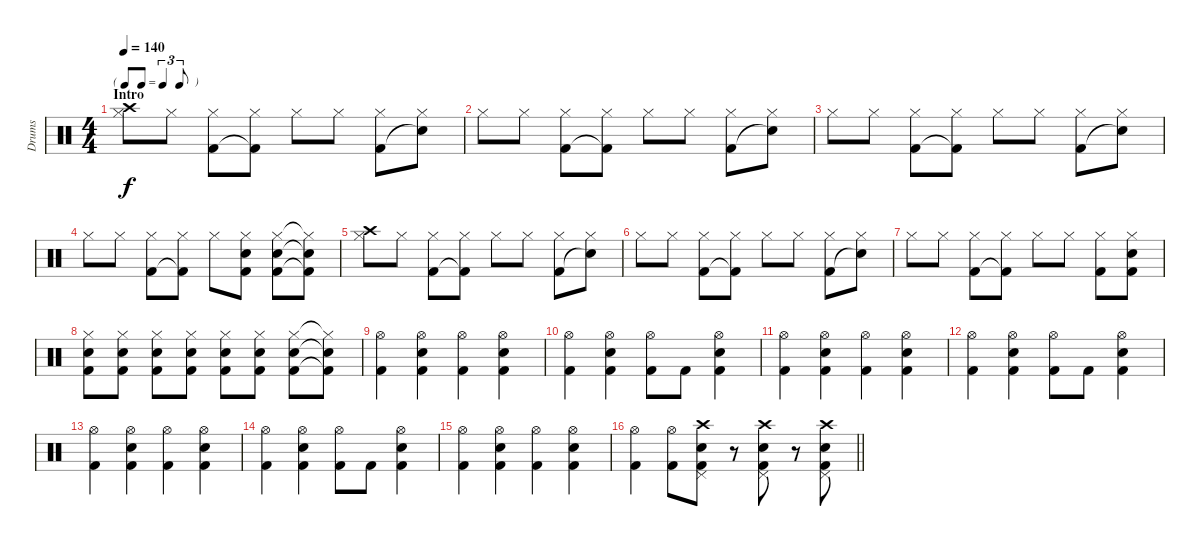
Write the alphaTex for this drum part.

\track ("Drums" "Drums") {instrument percussion}
\staff {score}
\articulation defaults
\ts (4 4)
\tf triplet8th
\section ("" "Intro")
\tempo 140
\clef neutral
\ks c
("Hi-Hat (closed)" "Crash high (hit)").8{dy f} "Hi-Hat (closed)".8 ("Hi-Hat (closed)" "Kick (hit) 2").8 ("Hi-Hat (closed)" "Kick (hit) 2"{t}).8 "Hi-Hat (closed)".8 "Hi-Hat (closed)".8 ("Hi-Hat (closed)" "Kick (hit) 2").8 ("Hi-Hat (closed)" "Snare (hit)"{t}).8 |
"Hi-Hat (closed)".8 "Hi-Hat (closed)".8 ("Hi-Hat (closed)" "Kick (hit) 2").8 ("Hi-Hat (closed)" "Kick (hit) 2"{t}).8 "Hi-Hat (closed)".8 "Hi-Hat (closed)".8 ("Hi-Hat (closed)" "Kick (hit) 2").8 ("Hi-Hat (closed)" "Snare (hit)"{t}).8 |
"Hi-Hat (closed)".8 "Hi-Hat (closed)".8 ("Hi-Hat (closed)" "Kick (hit) 2").8 ("Hi-Hat (closed)" "Kick (hit) 2"{t}).8 "Hi-Hat (closed)".8 "Hi-Hat (closed)".8 ("Hi-Hat (closed)" "Kick (hit) 2").8 ("Hi-Hat (closed)" "Snare (hit)"{t}).8 |
"Hi-Hat (closed)".8 "Hi-Hat (closed)".8 ("Hi-Hat (closed)" "Kick (hit) 2").8 ("Hi-Hat (closed)" "Kick (hit) 2"{t}).8 "Hi-Hat (closed)".8 ("Hi-Hat (closed)" "Snare (hit) 2" "Kick (hit) 2").8 ("Hi-Hat (closed)" "Snare (hit) 2" "Kick (hit) 2").8 ("Hi-Hat (closed)"{t} "Snare (hit) 2"{t} "Kick (hit) 2"{t}).8 |
("Hi-Hat (closed)" "Crash high (hit)").8 "Hi-Hat (closed)".8 ("Hi-Hat (closed)" "Kick (hit) 2").8 ("Hi-Hat (closed)" "Kick (hit) 2"{t}).8 "Hi-Hat (closed)".8 "Hi-Hat (closed)".8 ("Hi-Hat (closed)" "Kick (hit) 2").8 ("Hi-Hat (closed)" "Snare (hit)"{t}).8 |
"Hi-Hat (closed)".8 "Hi-Hat (closed)".8 ("Hi-Hat (closed)" "Kick (hit) 2").8 ("Hi-Hat (closed)" "Kick (hit) 2"{t}).8 "Hi-Hat (closed)".8 "Hi-Hat (closed)".8 ("Hi-Hat (closed)" "Kick (hit) 2").8 ("Hi-Hat (closed)" "Snare (hit)"{t}).8 |
"Hi-Hat (closed)".8 "Hi-Hat (closed)".8 ("Hi-Hat (closed)" "Kick (hit) 2").8 ("Hi-Hat (closed)" "Kick (hit) 2"{t}).8 "Hi-Hat (closed)".8 "Hi-Hat (closed)".8 ("Hi-Hat (closed)" "Kick (hit) 2").8 ("Hi-Hat (closed)" "Kick (hit) 2" "Snare (hit) 2").8 |
("Hi-Hat (closed)" "Kick (hit) 2" "Snare (hit) 2").8 ("Hi-Hat (closed)" "Kick (hit) 2" "Snare (hit) 2").8 ("Hi-Hat (closed)" "Kick (hit) 2" "Snare (hit) 2").8 ("Hi-Hat (closed)" "Kick (hit) 2" "Snare (hit) 2").8 ("Hi-Hat (closed)" "Kick (hit) 2" "Snare (hit) 2").8 ("Hi-Hat (closed)" "Snare (hit) 2" "Kick (hit) 2").8 ("Hi-Hat (closed)" "Snare (hit) 2" "Kick (hit) 2").8 ("Hi-Hat (closed)"{t} "Snare (hit) 2"{t} "Kick (hit) 2"{t}).8 |
("Hi-Hat (open)" "Kick (hit) 2").4 ("Hi-Hat (open)" "Kick (hit) 2" "Snare (hit) 2").4 ("Hi-Hat (open)" "Kick (hit) 2").4 ("Hi-Hat (open)" "Kick (hit) 2" "Snare (hit) 2").4 |
("Hi-Hat (open)" "Kick (hit) 2").4 ("Hi-Hat (open)" "Kick (hit) 2" "Snare (hit) 2").4 ("Hi-Hat (open)" "Kick (hit) 2").8 "Kick (hit) 2".8 ("Hi-Hat (open)" "Kick (hit) 2" "Snare (hit) 2").4 |
("Hi-Hat (open)" "Kick (hit) 2").4 ("Hi-Hat (open)" "Kick (hit) 2" "Snare (hit) 2").4 ("Hi-Hat (open)" "Kick (hit) 2").4 ("Hi-Hat (open)" "Kick (hit) 2" "Snare (hit) 2").4 |
("Hi-Hat (open)" "Kick (hit) 2").4 ("Hi-Hat (open)" "Kick (hit) 2" "Snare (hit) 2").4 ("Hi-Hat (open)" "Kick (hit) 2").8 "Kick (hit) 2".8 ("Hi-Hat (open)" "Kick (hit) 2" "Snare (hit) 2").4 |
("Hi-Hat (open)" "Kick (hit) 2").4 ("Hi-Hat (open)" "Kick (hit) 2" "Snare (hit) 2").4 ("Hi-Hat (open)" "Kick (hit) 2").4 ("Hi-Hat (open)" "Kick (hit) 2" "Snare (hit) 2").4 |
("Hi-Hat (open)" "Kick (hit) 2").4 ("Hi-Hat (open)" "Kick (hit) 2" "Snare (hit) 2").4 ("Hi-Hat (open)" "Kick (hit) 2").8 "Kick (hit) 2".8 ("Hi-Hat (open)" "Kick (hit) 2" "Snare (hit) 2").4 |
("Hi-Hat (open)" "Kick (hit) 2").4 ("Hi-Hat (open)" "Kick (hit) 2" "Snare (hit) 2").4 ("Hi-Hat (open)" "Kick (hit) 2").4 ("Hi-Hat (open)" "Kick (hit) 2" "Snare (hit) 2").4 |
\barLineRight lightlight
("Hi-Hat (open)" "Kick (hit) 2").4 ("Hi-Hat (open)" "Kick (hit) 2").8 ("Pedal Hi-Hat (hit)" "Kick (hit) 2" "Snare (hit) 2" "Crash high (hit)").8 r.8 ("Pedal Hi-Hat (hit)" "Kick (hit) 2" "Snare (hit) 2" "Crash high (hit)").8 r.8 ("Pedal Hi-Hat (hit)" "Kick (hit) 2" "Snare (hit) 2" "Crash high (hit)").8
